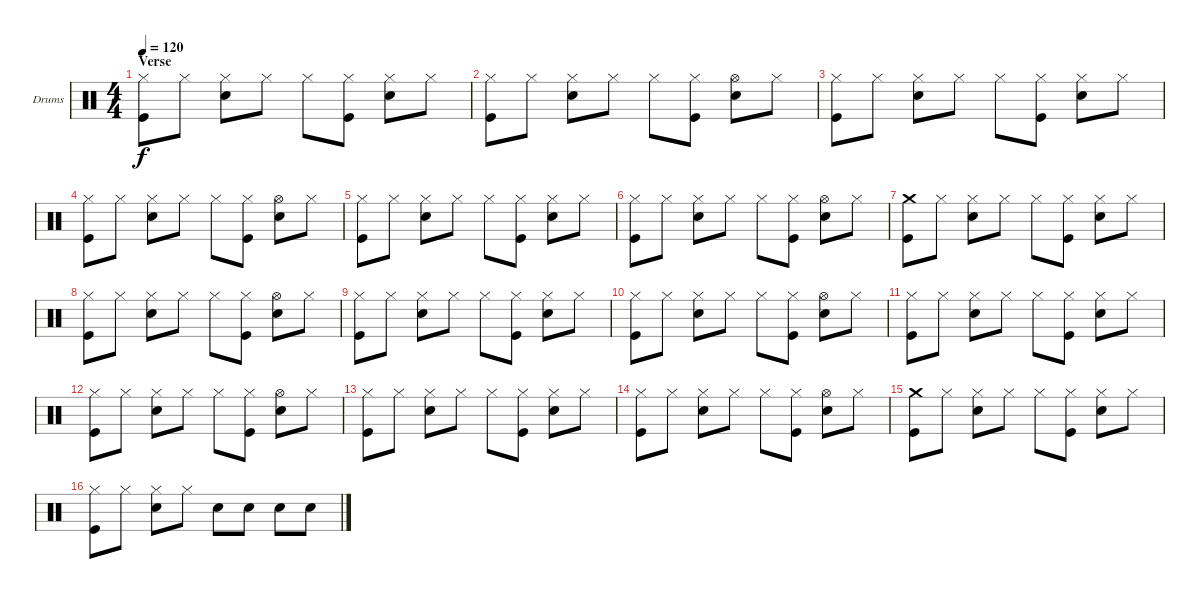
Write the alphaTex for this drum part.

\defaultSystemsLayout 4
\bracketExtendMode groupsimilarinstruments
\firstSystemTrackNameOrientation horizontal
\otherSystemsTrackNameOrientation horizontal
\track ("Drums" "Drums") {instrument percussion}
\staff {score}
\articulation defaults
\ts (4 4)
\section ("" "Verse")
\tempo 120
\clef neutral
\ks c
("Kick (hit)" "Hi-Hat (closed)").8{dy f} "Hi-Hat (closed)".8 ("Snare (hit) 2" "Hi-Hat (closed)").8 "Hi-Hat (closed)".8 "Hi-Hat (closed)".8 ("Kick (hit)" "Hi-Hat (closed)").8 ("Snare (hit) 2" "Hi-Hat (closed)").8 "Hi-Hat (closed)".8 |
("Kick (hit)" "Hi-Hat (closed)").8 "Hi-Hat (closed)".8 ("Snare (hit) 2" "Hi-Hat (closed)").8 "Hi-Hat (closed)".8 "Hi-Hat (closed)".8 ("Kick (hit)" "Hi-Hat (closed)").8 ("Snare (hit) 2" "Hi-Hat (open)").8 "Hi-Hat (closed)".8 |
("Kick (hit)" "Hi-Hat (closed)").8 "Hi-Hat (closed)".8 ("Snare (hit) 2" "Hi-Hat (closed)").8 "Hi-Hat (closed)".8 "Hi-Hat (closed)".8 ("Kick (hit)" "Hi-Hat (closed)").8 ("Snare (hit) 2" "Hi-Hat (closed)").8 "Hi-Hat (closed)".8 |
("Kick (hit)" "Hi-Hat (closed)").8 "Hi-Hat (closed)".8 ("Snare (hit) 2" "Hi-Hat (closed)").8 "Hi-Hat (closed)".8 "Hi-Hat (closed)".8 ("Kick (hit)" "Hi-Hat (closed)").8 ("Snare (hit) 2" "Hi-Hat (open)").8 "Hi-Hat (closed)".8 |
("Kick (hit)" "Hi-Hat (closed)").8 "Hi-Hat (closed)".8 ("Snare (hit) 2" "Hi-Hat (closed)").8 "Hi-Hat (closed)".8 "Hi-Hat (closed)".8 ("Kick (hit)" "Hi-Hat (closed)").8 ("Snare (hit) 2" "Hi-Hat (closed)").8 "Hi-Hat (closed)".8 |
("Kick (hit)" "Hi-Hat (closed)").8 "Hi-Hat (closed)".8 ("Snare (hit) 2" "Hi-Hat (closed)").8 "Hi-Hat (closed)".8 "Hi-Hat (closed)".8 ("Kick (hit)" "Hi-Hat (closed)").8 ("Snare (hit) 2" "Hi-Hat (open)").8 "Hi-Hat (closed)".8 |
("Kick (hit)" "Crash medium (hit)").8 "Hi-Hat (closed)".8 ("Snare (hit) 2" "Hi-Hat (closed)").8 "Hi-Hat (closed)".8 "Hi-Hat (closed)".8 ("Kick (hit)" "Hi-Hat (closed)").8 ("Snare (hit) 2" "Hi-Hat (closed)").8 "Hi-Hat (closed)".8 |
("Kick (hit)" "Hi-Hat (closed)").8 "Hi-Hat (closed)".8 ("Snare (hit) 2" "Hi-Hat (closed)").8 "Hi-Hat (closed)".8 "Hi-Hat (closed)".8 ("Kick (hit)" "Hi-Hat (closed)").8 ("Snare (hit) 2" "Hi-Hat (open)").8 "Hi-Hat (closed)".8 |
("Kick (hit)" "Hi-Hat (closed)").8 "Hi-Hat (closed)".8 ("Snare (hit) 2" "Hi-Hat (closed)").8 "Hi-Hat (closed)".8 "Hi-Hat (closed)".8 ("Kick (hit)" "Hi-Hat (closed)").8 ("Snare (hit) 2" "Hi-Hat (closed)").8 "Hi-Hat (closed)".8 |
("Kick (hit)" "Hi-Hat (closed)").8 "Hi-Hat (closed)".8 ("Snare (hit) 2" "Hi-Hat (closed)").8 "Hi-Hat (closed)".8 "Hi-Hat (closed)".8 ("Kick (hit)" "Hi-Hat (closed)").8 ("Snare (hit) 2" "Hi-Hat (open)").8 "Hi-Hat (closed)".8 |
("Kick (hit)" "Hi-Hat (closed)").8 "Hi-Hat (closed)".8 ("Snare (hit) 2" "Hi-Hat (closed)").8 "Hi-Hat (closed)".8 "Hi-Hat (closed)".8 ("Kick (hit)" "Hi-Hat (closed)").8 ("Snare (hit) 2" "Hi-Hat (closed)").8 "Hi-Hat (closed)".8 |
("Kick (hit)" "Hi-Hat (closed)").8 "Hi-Hat (closed)".8 ("Snare (hit) 2" "Hi-Hat (closed)").8 "Hi-Hat (closed)".8 "Hi-Hat (closed)".8 ("Kick (hit)" "Hi-Hat (closed)").8 ("Snare (hit) 2" "Hi-Hat (open)").8 "Hi-Hat (closed)".8 |
("Kick (hit)" "Hi-Hat (closed)").8 "Hi-Hat (closed)".8 ("Snare (hit) 2" "Hi-Hat (closed)").8 "Hi-Hat (closed)".8 "Hi-Hat (closed)".8 ("Kick (hit)" "Hi-Hat (closed)").8 ("Snare (hit) 2" "Hi-Hat (closed)").8 "Hi-Hat (closed)".8 |
("Kick (hit)" "Hi-Hat (closed)").8 "Hi-Hat (closed)".8 ("Snare (hit) 2" "Hi-Hat (closed)").8 "Hi-Hat (closed)".8 "Hi-Hat (closed)".8 ("Kick (hit)" "Hi-Hat (closed)").8 ("Snare (hit) 2" "Hi-Hat (open)").8 "Hi-Hat (closed)".8 |
("Kick (hit)" "Crash medium (hit)").8 "Hi-Hat (closed)".8 ("Snare (hit) 2" "Hi-Hat (closed)").8 "Hi-Hat (closed)".8 "Hi-Hat (closed)".8 ("Kick (hit)" "Hi-Hat (closed)").8 ("Snare (hit) 2" "Hi-Hat (closed)").8 "Hi-Hat (closed)".8 |
("Kick (hit)" "Hi-Hat (closed)").8 "Hi-Hat (closed)".8 ("Snare (hit) 2" "Hi-Hat (closed)").8 "Hi-Hat (closed)".8 "Snare (hit) 2".8 "Snare (hit) 2".8 "Snare (hit) 2".8 "Snare (hit) 2".8
